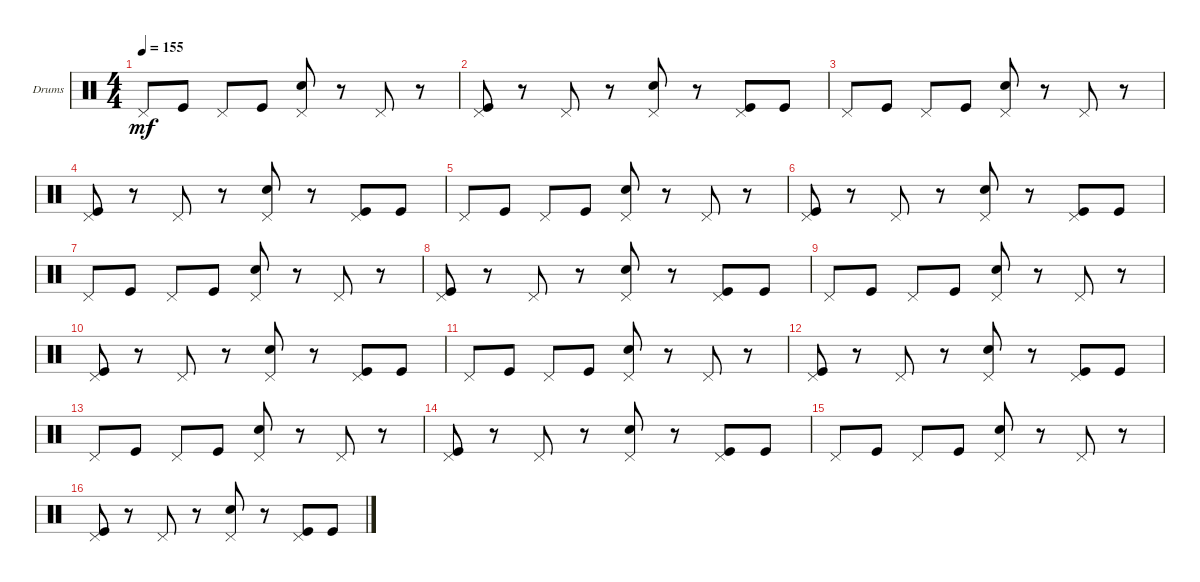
\defaultSystemsLayout 4
\bracketExtendMode groupsimilarinstruments
\firstSystemTrackNameOrientation horizontal
\otherSystemsTrackNameOrientation horizontal
\track ("Drumkit" "Drums") {instrument percussion}
\staff {score}
\articulation defaults
\ts (4 4)
\tempo 155
\clef neutral
\ks c "Pedal Hi-Hat (hit)".8{dy mf} "Kick (hit)".8 "Pedal Hi-Hat (hit)".8 "Kick (hit)".8
("Pedal Hi-Hat (hit)" "Snare (hit) 2").8 r.8 "Pedal Hi-Hat (hit)".8 r.8 |
("Kick (hit)" "Pedal Hi-Hat (hit)").8 r.8 "Pedal Hi-Hat (hit)".8 r.8 ("Pedal Hi-Hat (hit)" "Snare (hit) 2").8 r.8 ("Kick (hit)" "Pedal Hi-Hat (hit)").8 "Kick (hit)".8 |
"Pedal Hi-Hat (hit)".8 "Kick (hit)".8 "Pedal Hi-Hat (hit)".8 "Kick (hit)".8 ("Pedal Hi-Hat (hit)" "Snare (hit) 2").8 r.8 "Pedal Hi-Hat (hit)".8 r.8 |
("Kick (hit)" "Pedal Hi-Hat (hit)").8 r.8 "Pedal Hi-Hat (hit)".8 r.8 ("Pedal Hi-Hat (hit)" "Snare (hit) 2").8 r.8 ("Kick (hit)" "Pedal Hi-Hat (hit)").8 "Kick (hit)".8 |
"Pedal Hi-Hat (hit)".8 "Kick (hit)".8 "Pedal Hi-Hat (hit)".8 "Kick (hit)".8 ("Pedal Hi-Hat (hit)" "Snare (hit) 2").8 r.8 "Pedal Hi-Hat (hit)".8 r.8 |
("Kick (hit)" "Pedal Hi-Hat (hit)").8 r.8 "Pedal Hi-Hat (hit)".8 r.8 ("Pedal Hi-Hat (hit)" "Snare (hit) 2").8 r.8 ("Kick (hit)" "Pedal Hi-Hat (hit)").8 "Kick (hit)".8 |
"Pedal Hi-Hat (hit)".8 "Kick (hit)".8 "Pedal Hi-Hat (hit)".8 "Kick (hit)".8 ("Pedal Hi-Hat (hit)" "Snare (hit) 2").8 r.8 "Pedal Hi-Hat (hit)".8 r.8 |
("Kick (hit)" "Pedal Hi-Hat (hit)").8 r.8 "Pedal Hi-Hat (hit)".8 r.8 ("Pedal Hi-Hat (hit)" "Snare (hit) 2").8 r.8 ("Kick (hit)" "Pedal Hi-Hat (hit)").8 "Kick (hit)".8 |
"Pedal Hi-Hat (hit)".8 "Kick (hit)".8 "Pedal Hi-Hat (hit)".8 "Kick (hit)".8 ("Pedal Hi-Hat (hit)" "Snare (hit) 2").8 r.8 "Pedal Hi-Hat (hit)".8 r.8 |
("Kick (hit)" "Pedal Hi-Hat (hit)").8 r.8 "Pedal Hi-Hat (hit)".8 r.8 ("Pedal Hi-Hat (hit)" "Snare (hit) 2").8 r.8 ("Kick (hit)" "Pedal Hi-Hat (hit)").8 "Kick (hit)".8 |
"Pedal Hi-Hat (hit)".8 "Kick (hit)".8 "Pedal Hi-Hat (hit)".8 "Kick (hit)".8 ("Pedal Hi-Hat (hit)" "Snare (hit) 2").8 r.8 "Pedal Hi-Hat (hit)".8 r.8 |
("Kick (hit)" "Pedal Hi-Hat (hit)").8 r.8 "Pedal Hi-Hat (hit)".8 r.8 ("Pedal Hi-Hat (hit)" "Snare (hit) 2").8 r.8 ("Kick (hit)" "Pedal Hi-Hat (hit)").8 "Kick (hit)".8 |
"Pedal Hi-Hat (hit)".8 "Kick (hit)".8 "Pedal Hi-Hat (hit)".8 "Kick (hit)".8 ("Pedal Hi-Hat (hit)" "Snare (hit) 2").8 r.8 "Pedal Hi-Hat (hit)".8 r.8 |
("Kick (hit)" "Pedal Hi-Hat (hit)").8 r.8 "Pedal Hi-Hat (hit)".8 r.8 ("Pedal Hi-Hat (hit)" "Snare (hit) 2").8 r.8 ("Kick (hit)" "Pedal Hi-Hat (hit)").8 "Kick (hit)".8 |
"Pedal Hi-Hat (hit)".8 "Kick (hit)".8 "Pedal Hi-Hat (hit)".8 "Kick (hit)".8 ("Pedal Hi-Hat (hit)" "Snare (hit) 2").8 r.8 "Pedal Hi-Hat (hit)".8 r.8 |
("Kick (hit)" "Pedal Hi-Hat (hit)").8 r.8 "Pedal Hi-Hat (hit)".8 r.8 ("Pedal Hi-Hat (hit)" "Snare (hit) 2").8 r.8 ("Kick (hit)" "Pedal Hi-Hat (hit)").8 "Kick (hit)".8
